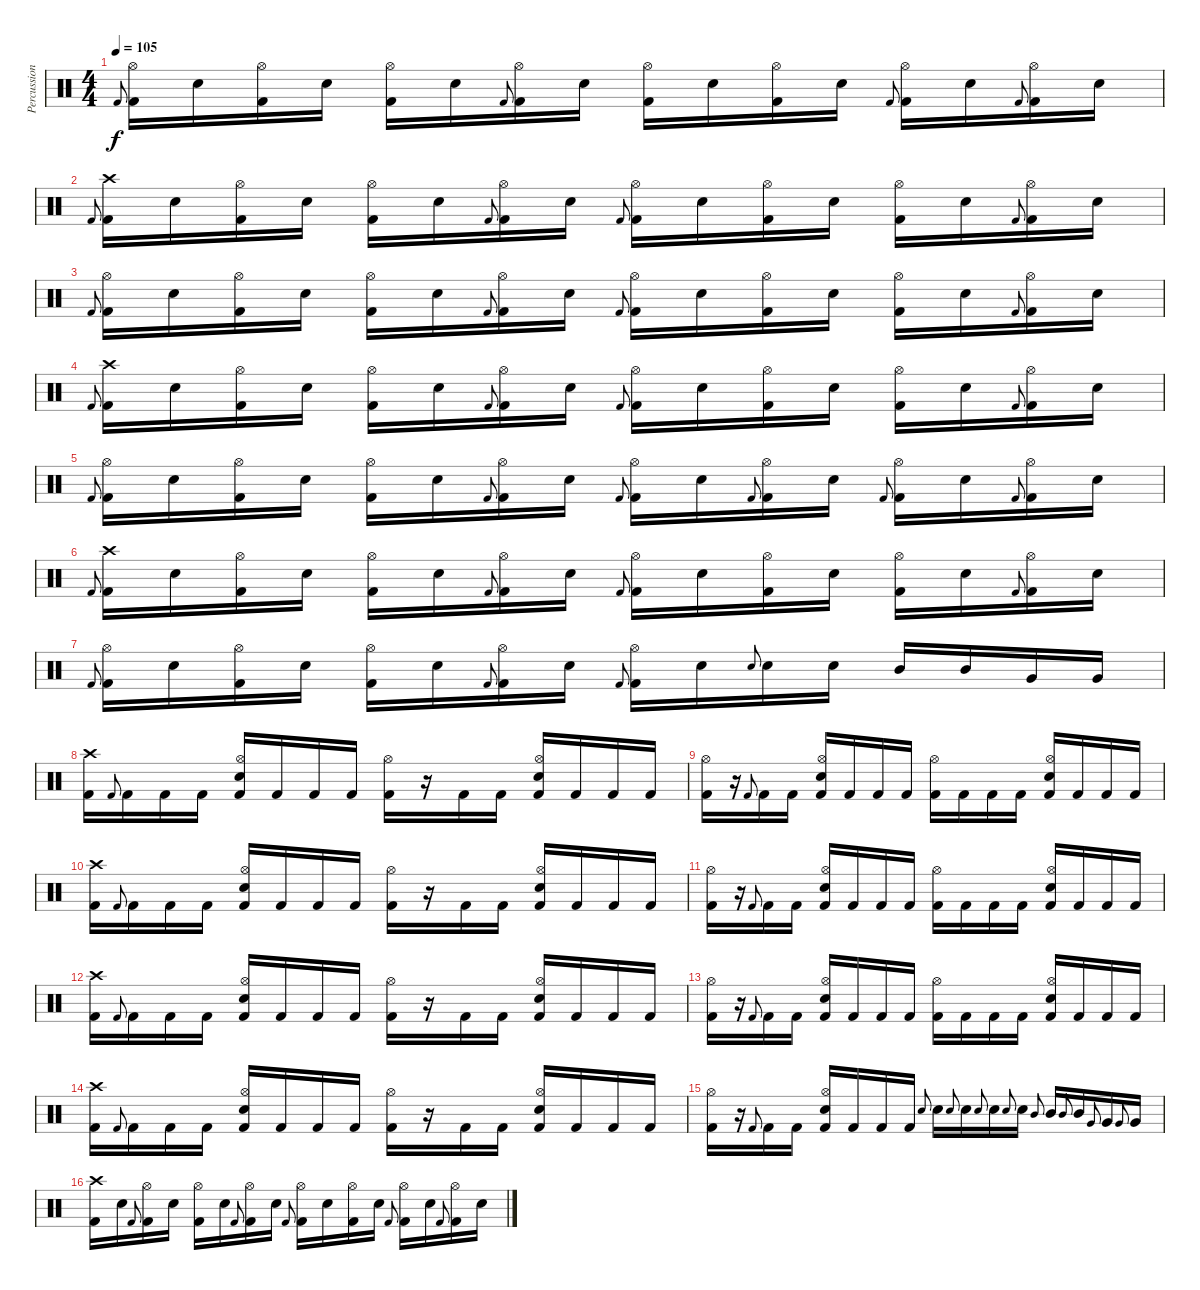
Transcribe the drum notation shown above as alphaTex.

\track ("Percussion" "Percussion") {instrument percussion}
\staff {score}
\articulation defaults
\ts (4 4)
\tempo 105
\clef neutral
\ks c "Kick (hit) 2".8{gr onbeat dy f}
("Hi-Hat (open)" "Kick (hit) 2").16 "Snare (hit) 2".16 ("Hi-Hat (open)" "Kick (hit) 2").16 "Snare (hit) 2".16 ("Hi-Hat (open)" "Kick (hit) 2").16 "Snare (hit) 2".16 "Kick (hit) 2".8{gr onbeat} ("Hi-Hat (open)" "Kick (hit) 2").16 "Snare (hit) 2".16 ("Hi-Hat (open)" "Kick (hit) 2").16 "Snare (hit) 2".16 ("Hi-Hat (open)" "Kick (hit) 2").16 "Snare (hit) 2".16 "Kick (hit) 2".8{gr onbeat} ("Hi-Hat (open)" "Kick (hit) 2").16 "Snare (hit) 2".16 "Kick (hit) 2".8{gr onbeat} ("Hi-Hat (open)" "Kick (hit) 2").16 "Snare (hit) 2".16 |
"Kick (hit) 2".8{gr onbeat} ("Crash high (hit)" "Kick (hit) 2").16 "Snare (hit) 2".16 ("Hi-Hat (open)" "Kick (hit) 2").16 "Snare (hit) 2".16 ("Hi-Hat (open)" "Kick (hit) 2").16 "Snare (hit) 2".16 "Kick (hit) 2".8{gr onbeat} ("Hi-Hat (open)" "Kick (hit) 2").16 "Snare (hit) 2".16 "Kick (hit) 2".8{gr onbeat} ("Hi-Hat (open)" "Kick (hit) 2").16 "Snare (hit) 2".16 ("Hi-Hat (open)" "Kick (hit) 2").16 "Snare (hit) 2".16 ("Hi-Hat (open)" "Kick (hit) 2").16 "Snare (hit) 2".16 "Kick (hit) 2".8{gr onbeat} ("Hi-Hat (open)" "Kick (hit) 2").16 "Snare (hit) 2".16 |
"Kick (hit) 2".8{gr onbeat} ("Hi-Hat (open)" "Kick (hit) 2").16 "Snare (hit) 2".16 ("Hi-Hat (open)" "Kick (hit) 2").16 "Snare (hit) 2".16 ("Hi-Hat (open)" "Kick (hit) 2").16 "Snare (hit) 2".16 "Kick (hit) 2".8{gr onbeat} ("Hi-Hat (open)" "Kick (hit) 2").16 "Snare (hit) 2".16 "Kick (hit) 2".8{gr onbeat} ("Hi-Hat (open)" "Kick (hit) 2").16 "Snare (hit) 2".16 ("Hi-Hat (open)" "Kick (hit) 2").16 "Snare (hit) 2".16 ("Hi-Hat (open)" "Kick (hit) 2").16 "Snare (hit) 2".16 "Kick (hit) 2".8{gr onbeat} ("Hi-Hat (open)" "Kick (hit) 2").16 "Snare (hit) 2".16 |
"Kick (hit) 2".8{gr onbeat} ("Crash high (hit)" "Kick (hit) 2").16 "Snare (hit) 2".16 ("Hi-Hat (open)" "Kick (hit) 2").16 "Snare (hit) 2".16 ("Hi-Hat (open)" "Kick (hit) 2").16 "Snare (hit) 2".16 "Kick (hit) 2".8{gr onbeat} ("Hi-Hat (open)" "Kick (hit) 2").16 "Snare (hit) 2".16 "Kick (hit) 2".8{gr onbeat} ("Hi-Hat (open)" "Kick (hit) 2").16 "Snare (hit) 2".16 ("Hi-Hat (open)" "Kick (hit) 2").16 "Snare (hit) 2".16 ("Hi-Hat (open)" "Kick (hit) 2").16 "Snare (hit) 2".16 "Kick (hit) 2".8{gr onbeat} ("Hi-Hat (open)" "Kick (hit) 2").16 "Snare (hit) 2".16 |
"Kick (hit) 2".8{gr onbeat} ("Hi-Hat (open)" "Kick (hit) 2").16 "Snare (hit) 2".16 ("Hi-Hat (open)" "Kick (hit) 2").16 "Snare (hit) 2".16 ("Hi-Hat (open)" "Kick (hit) 2").16 "Snare (hit) 2".16 "Kick (hit) 2".8{gr onbeat} ("Hi-Hat (open)" "Kick (hit) 2").16 "Snare (hit) 2".16 "Kick (hit) 2".8{gr onbeat} ("Hi-Hat (open)" "Kick (hit) 2").16 "Snare (hit) 2".16 "Kick (hit) 2".8{gr onbeat} ("Hi-Hat (open)" "Kick (hit) 2").16 "Snare (hit) 2".16 "Kick (hit) 2".8{gr onbeat} ("Hi-Hat (open)" "Kick (hit) 2").16 "Snare (hit) 2".16 "Kick (hit) 2".8{gr onbeat} ("Hi-Hat (open)" "Kick (hit) 2").16 "Snare (hit) 2".16 |
"Kick (hit) 2".8{gr onbeat} ("Crash high (hit)" "Kick (hit) 2").16 "Snare (hit) 2".16 ("Hi-Hat (open)" "Kick (hit) 2").16 "Snare (hit) 2".16 ("Hi-Hat (open)" "Kick (hit) 2").16 "Snare (hit) 2".16 "Kick (hit) 2".8{gr onbeat} ("Hi-Hat (open)" "Kick (hit) 2").16 "Snare (hit) 2".16 "Kick (hit) 2".8{gr onbeat} ("Hi-Hat (open)" "Kick (hit) 2").16 "Snare (hit) 2".16 ("Hi-Hat (open)" "Kick (hit) 2").16 "Snare (hit) 2".16 ("Hi-Hat (open)" "Kick (hit) 2").16 "Snare (hit) 2".16 "Kick (hit) 2".8{gr onbeat} ("Hi-Hat (open)" "Kick (hit) 2").16 "Snare (hit) 2".16 |
"Kick (hit) 2".8{gr onbeat} ("Hi-Hat (open)" "Kick (hit) 2").16 "Snare (hit) 2".16 ("Hi-Hat (open)" "Kick (hit) 2").16 "Snare (hit) 2".16 ("Hi-Hat (open)" "Kick (hit) 2").16 "Snare (hit) 2".16 "Kick (hit) 2".8{gr onbeat} ("Hi-Hat (open)" "Kick (hit) 2").16 "Snare (hit) 2".16 "Kick (hit) 2".8{gr onbeat} ("Hi-Hat (open)" "Kick (hit) 2").16 "Snare (hit) 2".16 "Snare (hit) 2".8{gr onbeat} "Snare (hit) 2".16 "Snare (hit) 2".16 "Mid Tom (hit)".16 "Mid Tom (hit)".16 "Very Low Tom (hit)".16 "Very Low Tom (hit)".16 |
("Crash high (hit)" "Kick (hit) 2").16 "Kick (hit) 2".8{gr onbeat} "Kick (hit) 2".16 "Kick (hit) 2".16 "Kick (hit) 2".16 ("Hi-Hat (open)" "Snare (hit) 2" "Kick (hit) 2").16 "Kick (hit) 2".16 "Kick (hit) 2".16 "Kick (hit) 2".16 ("Hi-Hat (open)" "Kick (hit) 2").16 r.16 "Kick (hit) 2".16 "Kick (hit) 2".16 ("Hi-Hat (open)" "Snare (hit) 2" "Kick (hit) 2").16 "Kick (hit) 2".16 "Kick (hit) 2".16 "Kick (hit) 2".16 |
("Hi-Hat (open)" "Kick (hit) 2").16 r.16 "Kick (hit) 2".8{gr onbeat} "Kick (hit) 2".16 "Kick (hit) 2".16 ("Hi-Hat (open)" "Snare (hit) 2" "Kick (hit) 2").16 "Kick (hit) 2".16 "Kick (hit) 2".16 "Kick (hit) 2".16 ("Hi-Hat (open)" "Kick (hit) 2").16 "Kick (hit) 2".16 "Kick (hit) 2".16 "Kick (hit) 2".16 ("Hi-Hat (open)" "Snare (hit) 2" "Kick (hit) 2").16 "Kick (hit) 2".16 "Kick (hit) 2".16 "Kick (hit) 2".16 |
("Crash high (hit)" "Kick (hit) 2").16 "Kick (hit) 2".8{gr onbeat} "Kick (hit) 2".16 "Kick (hit) 2".16 "Kick (hit) 2".16 ("Hi-Hat (open)" "Snare (hit) 2" "Kick (hit) 2").16 "Kick (hit) 2".16 "Kick (hit) 2".16 "Kick (hit) 2".16 ("Hi-Hat (open)" "Kick (hit) 2").16 r.16 "Kick (hit) 2".16 "Kick (hit) 2".16 ("Hi-Hat (open)" "Snare (hit) 2" "Kick (hit) 2").16 "Kick (hit) 2".16 "Kick (hit) 2".16 "Kick (hit) 2".16 |
("Hi-Hat (open)" "Kick (hit) 2").16 r.16 "Kick (hit) 2".8{gr onbeat} "Kick (hit) 2".16 "Kick (hit) 2".16 ("Hi-Hat (open)" "Snare (hit) 2" "Kick (hit) 2").16 "Kick (hit) 2".16 "Kick (hit) 2".16 "Kick (hit) 2".16 ("Hi-Hat (open)" "Kick (hit) 2").16 "Kick (hit) 2".16 "Kick (hit) 2".16 "Kick (hit) 2".16 ("Hi-Hat (open)" "Snare (hit) 2" "Kick (hit) 2").16 "Kick (hit) 2".16 "Kick (hit) 2".16 "Kick (hit) 2".16 |
("Crash high (hit)" "Kick (hit) 2").16 "Kick (hit) 2".8{gr onbeat} "Kick (hit) 2".16 "Kick (hit) 2".16 "Kick (hit) 2".16 ("Hi-Hat (open)" "Snare (hit) 2" "Kick (hit) 2").16 "Kick (hit) 2".16 "Kick (hit) 2".16 "Kick (hit) 2".16 ("Hi-Hat (open)" "Kick (hit) 2").16 r.16 "Kick (hit) 2".16 "Kick (hit) 2".16 ("Hi-Hat (open)" "Snare (hit) 2" "Kick (hit) 2").16 "Kick (hit) 2".16 "Kick (hit) 2".16 "Kick (hit) 2".16 |
("Hi-Hat (open)" "Kick (hit) 2").16 r.16 "Kick (hit) 2".8{gr onbeat} "Kick (hit) 2".16 "Kick (hit) 2".16 ("Hi-Hat (open)" "Snare (hit) 2" "Kick (hit) 2").16 "Kick (hit) 2".16 "Kick (hit) 2".16 "Kick (hit) 2".16 ("Hi-Hat (open)" "Kick (hit) 2").16 "Kick (hit) 2".16 "Kick (hit) 2".16 "Kick (hit) 2".16 ("Hi-Hat (open)" "Snare (hit) 2" "Kick (hit) 2").16 "Kick (hit) 2".16 "Kick (hit) 2".16 "Kick (hit) 2".16 |
("Crash high (hit)" "Kick (hit) 2").16 "Kick (hit) 2".8{gr onbeat} "Kick (hit) 2".16 "Kick (hit) 2".16 "Kick (hit) 2".16 ("Hi-Hat (open)" "Snare (hit) 2" "Kick (hit) 2").16 "Kick (hit) 2".16 "Kick (hit) 2".16 "Kick (hit) 2".16 ("Hi-Hat (open)" "Kick (hit) 2").16 r.16 "Kick (hit) 2".16 "Kick (hit) 2".16 ("Hi-Hat (open)" "Snare (hit) 2" "Kick (hit) 2").16 "Kick (hit) 2".16 "Kick (hit) 2".16 "Kick (hit) 2".16 |
("Hi-Hat (open)" "Kick (hit) 2").16 r.16 "Kick (hit) 2".8{gr onbeat} "Kick (hit) 2".16 "Kick (hit) 2".16 ("Hi-Hat (open)" "Snare (hit) 2" "Kick (hit) 2").16 "Kick (hit) 2".16 "Kick (hit) 2".16 "Kick (hit) 2".16 "Snare (hit) 2".8{gr onbeat} "Snare (hit) 2".16 "Snare (hit) 2".8{gr onbeat} "Snare (hit) 2".16 "Snare (hit) 2".8{gr onbeat} "Snare (hit) 2".16 "Snare (hit) 2".8{gr onbeat} "Snare (hit) 2".16 "Mid Tom (hit)".8{gr onbeat} "Mid Tom (hit)".16 "Mid Tom (hit)".8{gr onbeat} "Mid Tom (hit)".16 "Very Low Tom (hit)".8{gr onbeat} "Very Low Tom (hit)".16 "Very Low Tom (hit)".8{gr onbeat} "Very Low Tom (hit)".16 |
("Crash high (hit)" "Kick (hit) 2").16 "Snare (hit) 2".16 "Kick (hit) 2".8{gr onbeat} ("Hi-Hat (open)" "Kick (hit) 2").16 "Snare (hit) 2".16 ("Hi-Hat (open)" "Kick (hit) 2").16 "Snare (hit) 2".16 "Kick (hit) 2".8{gr onbeat} ("Hi-Hat (open)" "Kick (hit) 2").16 "Snare (hit) 2".16 "Kick (hit) 2".8{gr onbeat} ("Hi-Hat (open)" "Kick (hit) 2").16 "Snare (hit) 2".16 ("Hi-Hat (open)" "Kick (hit) 2").16 "Snare (hit) 2".16 "Kick (hit) 2".8{gr onbeat} ("Hi-Hat (open)" "Kick (hit) 2").16 "Snare (hit) 2".16 "Kick (hit) 2".8{gr onbeat} ("Hi-Hat (open)" "Kick (hit) 2").16 "Snare (hit) 2".16
